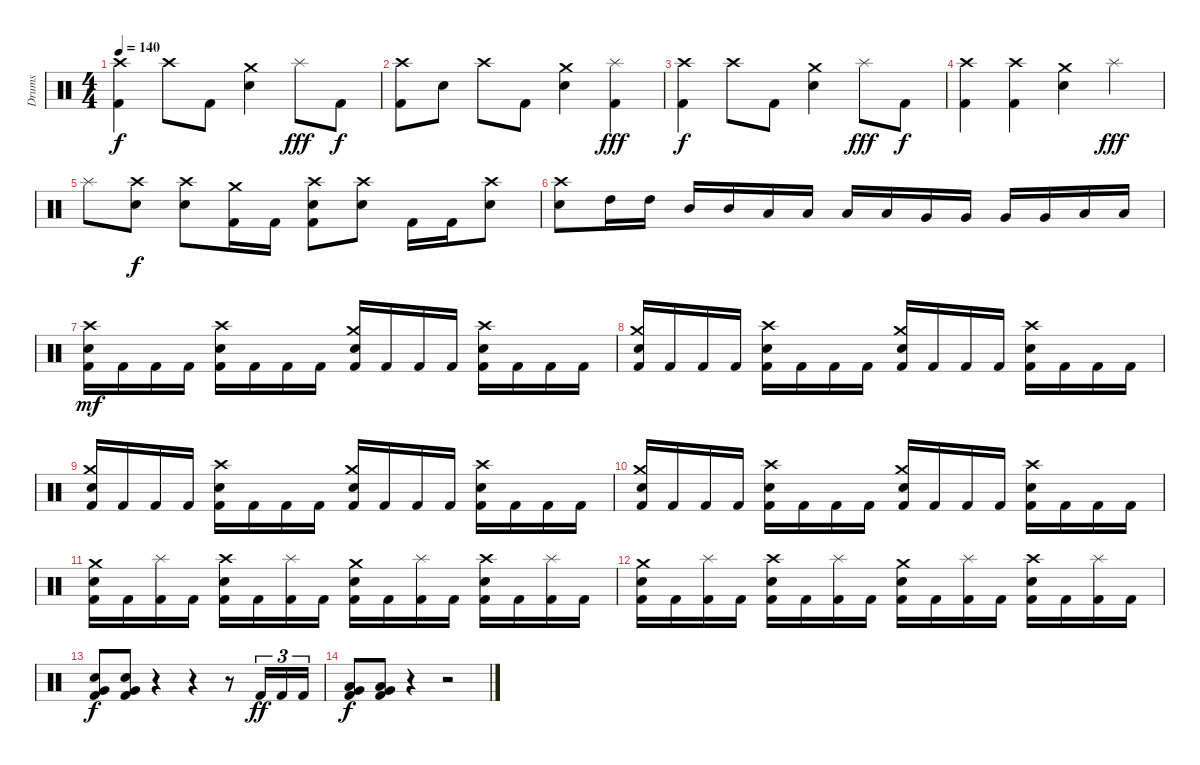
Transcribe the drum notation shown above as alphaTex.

\track ("Drums" "Drums") {instrument percussion}
\staff {score}
\articulation defaults
\ts (4 4)
\tempo 140
\clef neutral
\ks c
("Crash high (hit)" "Kick (hit) 2").4{dy f} "Crash high (hit)".8 "Kick (hit) 2".8 ("Crash medium (hit)" "Electric Snare (hit)").4 "Splash (hit)".8{dy fff} "Kick (hit) 2".8{dy f} |
("Crash high (hit)" "Kick (hit) 2").8 "Electric Snare (hit)".8 "Crash high (hit)".8 "Kick (hit) 2".8 ("Crash medium (hit)" "Electric Snare (hit)").4 ("Splash (hit)" "Kick (hit) 2").4{dy fff} |
("Crash high (hit)" "Kick (hit) 2").4{dy f} "Crash high (hit)".8 "Kick (hit) 2".8 ("Crash medium (hit)" "Electric Snare (hit)").4 "Splash (hit)".8{dy fff} "Kick (hit) 2".8{dy f} |
("Crash high (hit)" "Kick (hit) 2").4 ("Crash high (hit)" "Kick (hit) 2").4 ("Crash medium (hit)" "Electric Snare (hit)").4 "Splash (hit)".4{dy fff} |
"Splash (hit)".8 ("Crash high (hit)" "Electric Snare (hit)").8{dy f} ("Crash high (hit)" "Electric Snare (hit)").8 ("Crash medium (hit)" "Kick (hit) 2").16 "Kick (hit) 2".16 ("Crash high (hit)" "Electric Snare (hit)" "Kick (hit) 2").8 ("Crash high (hit)" "Electric Snare (hit)").8 "Kick (hit) 2".16 "Kick (hit) 2".16 ("Crash high (hit)" "Electric Snare (hit)").8 |
("Crash high (hit)" "Electric Snare (hit)").8 "High Tom (hit)".16 "High Tom (hit)".16 "Mid Tom (hit)".16 "Mid Tom (hit)".16 "Low Tom (hit)".16 "Low Tom (hit)".16 "Low Tom (hit)".16 "Low Tom (hit)".16 "Very Low Tom (hit)".16 "Very Low Tom (hit)".16 "Very Low Tom (hit)".16 "Very Low Tom (hit)".16 "Low Floor Tom (hit)".16 "Low Floor Tom (hit)".16 |
("Crash high (hit)" "Electric Snare (hit)" "Kick (hit) 2").16{dy mf} "Kick (hit) 2".16 "Kick (hit) 2".16 "Kick (hit) 2".16 ("Crash high (hit)" "Electric Snare (hit)" "Kick (hit) 2").16 "Kick (hit) 2".16 "Kick (hit) 2".16 "Kick (hit) 2".16 ("Crash medium (hit)" "Electric Snare (hit)" "Kick (hit) 2").16 "Kick (hit) 2".16 "Kick (hit) 2".16 "Kick (hit) 2".16 ("Crash high (hit)" "Electric Snare (hit)" "Kick (hit) 2").16 "Kick (hit) 2".16 "Kick (hit) 2".16 "Kick (hit) 2".16 |
("Crash medium (hit)" "Electric Snare (hit)" "Kick (hit) 2").16 "Kick (hit) 2".16 "Kick (hit) 2".16 "Kick (hit) 2".16 ("Crash high (hit)" "Electric Snare (hit)" "Kick (hit) 2").16 "Kick (hit) 2".16 "Kick (hit) 2".16 "Kick (hit) 2".16 ("Crash medium (hit)" "Electric Snare (hit)" "Kick (hit) 2").16 "Kick (hit) 2".16 "Kick (hit) 2".16 "Kick (hit) 2".16 ("Crash high (hit)" "Electric Snare (hit)" "Kick (hit) 2").16 "Kick (hit) 2".16 "Kick (hit) 2".16 "Kick (hit) 2".16 |
("Crash medium (hit)" "Electric Snare (hit)" "Kick (hit) 2").16 "Kick (hit) 2".16 "Kick (hit) 2".16 "Kick (hit) 2".16 ("Crash high (hit)" "Electric Snare (hit)" "Kick (hit) 2").16 "Kick (hit) 2".16 "Kick (hit) 2".16 "Kick (hit) 2".16 ("Crash medium (hit)" "Electric Snare (hit)" "Kick (hit) 2").16 "Kick (hit) 2".16 "Kick (hit) 2".16 "Kick (hit) 2".16 ("Crash high (hit)" "Electric Snare (hit)" "Kick (hit) 2").16 "Kick (hit) 2".16 "Kick (hit) 2".16 "Kick (hit) 2".16 |
("Crash medium (hit)" "Electric Snare (hit)" "Kick (hit) 2").16 "Kick (hit) 2".16 "Kick (hit) 2".16 "Kick (hit) 2".16 ("Crash high (hit)" "Electric Snare (hit)" "Kick (hit) 2").16 "Kick (hit) 2".16 "Kick (hit) 2".16 "Kick (hit) 2".16 ("Crash medium (hit)" "Electric Snare (hit)" "Kick (hit) 2").16 "Kick (hit) 2".16 "Kick (hit) 2".16 "Kick (hit) 2".16 ("Crash high (hit)" "Electric Snare (hit)" "Kick (hit) 2").16 "Kick (hit) 2".16 "Kick (hit) 2".16 "Kick (hit) 2".16 |
("Crash medium (hit)" "Electric Snare (hit)" "Kick (hit) 2").16 "Kick (hit) 2".16 ("Splash (hit)" "Kick (hit) 2").16 "Kick (hit) 2".16 ("Crash high (hit)" "Electric Snare (hit)" "Kick (hit) 2").16 "Kick (hit) 2".16 ("Splash (hit)" "Kick (hit) 2").16 "Kick (hit) 2".16 ("Crash medium (hit)" "Electric Snare (hit)" "Kick (hit) 2").16 "Kick (hit) 2".16 ("Splash (hit)" "Kick (hit) 2").16 "Kick (hit) 2".16 ("Crash high (hit)" "Electric Snare (hit)" "Kick (hit) 2").16 "Kick (hit) 2".16 ("Splash (hit)" "Kick (hit) 2").16 "Kick (hit) 2".16 |
("Crash medium (hit)" "Electric Snare (hit)" "Kick (hit) 2").16 "Kick (hit) 2".16 ("Splash (hit)" "Kick (hit) 2").16 "Kick (hit) 2".16 ("Crash high (hit)" "Electric Snare (hit)" "Kick (hit) 2").16 "Kick (hit) 2".16 ("Splash (hit)" "Kick (hit) 2").16 "Kick (hit) 2".16 ("Crash medium (hit)" "Electric Snare (hit)" "Kick (hit) 2").16 "Kick (hit) 2".16 ("Splash (hit)" "Kick (hit) 2").16 "Kick (hit) 2".16 ("Crash high (hit)" "Electric Snare (hit)" "Kick (hit) 2").16 "Kick (hit) 2".16 ("Splash (hit)" "Kick (hit) 2").16 "Kick (hit) 2".16 |
("Electric Snare (hit)" "Very Low Tom (hit)" "Kick (hit) 2").8{dy f} ("Electric Snare (hit)" "Very Low Tom (hit)" "Kick (hit) 2").8 r.4 r.4 r.8 "Kick (hit) 2".16{tu (3 2) dy ff} "Kick (hit) 2".16{tu (3 2)} "Kick (hit) 2".16{tu (3 2)} |
("Low Floor Tom (hit)" "Very Low Tom (hit)" "Kick (hit) 2").8{dy f} ("Low Floor Tom (hit)" "Very Low Tom (hit)" "Kick (hit) 2").8 r.4 r.2
